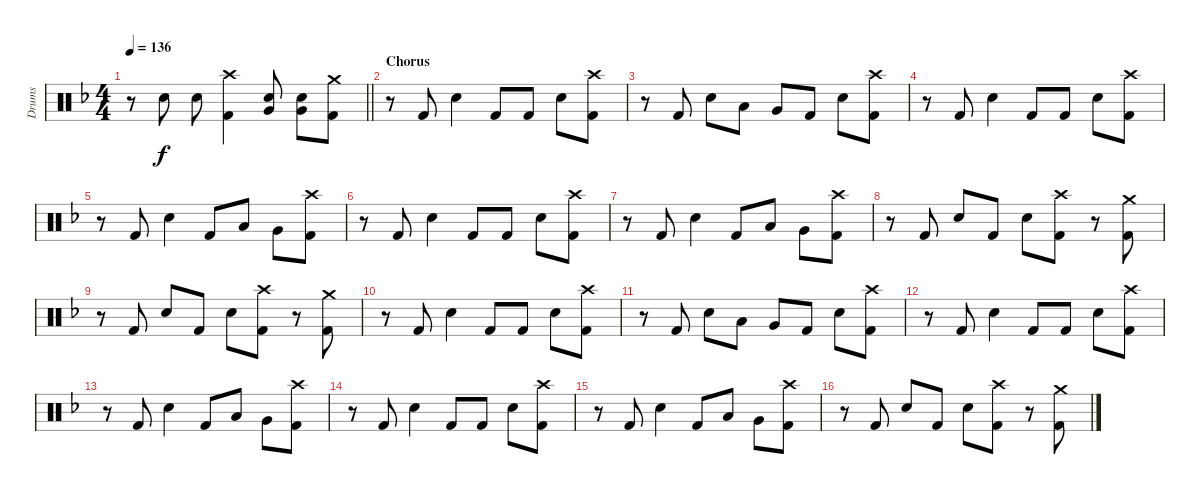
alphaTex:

\track ("Drums" "Drums") {instrument percussion}
\staff {score}
\articulation defaults
\ts (4 4)
\tempo 136
\clef neutral
\barLineRight lightlight
\ks dminor
r.8{dy f} "Snare (hit) 2".8 "Snare (hit) 2".8 ("Crash high (hit)" "Kick (hit) 2").4 ("Very Low Tom (hit)" "Snare (hit) 2").8 ("Very Low Tom (hit)" "Snare (hit) 2").8 ("Crash medium (hit)" "Kick (hit) 2").8 |
\section ("" "Chorus")
r.8 "Kick (hit) 2".8 "Snare (hit) 2".4 "Kick (hit) 2".8 "Kick (hit) 2".8 "Snare (hit) 2".8 ("Crash high (hit)" "Kick (hit) 2").8 |
r.8 "Kick (hit) 2".8 "Snare (hit) 2".8 "Low Tom (hit)".8 "Very Low Tom (hit)".8 "Kick (hit) 2".8 "Snare (hit) 2".8 ("Crash high (hit)" "Kick (hit) 2").8 |
r.8 "Kick (hit) 2".8 "Snare (hit) 2".4 "Kick (hit) 2".8 "Kick (hit) 2".8 "Snare (hit) 2".8 ("Crash high (hit)" "Kick (hit) 2").8 |
r.8 "Kick (hit) 2".8 "Snare (hit) 2".4 "Kick (hit) 2".8 "Low Tom (hit)".8 "Very Low Tom (hit)".8 ("Crash high (hit)" "Kick (hit) 2").8 |
r.8 "Kick (hit) 2".8 "Snare (hit) 2".4 "Kick (hit) 2".8 "Kick (hit) 2".8 "Snare (hit) 2".8 ("Crash high (hit)" "Kick (hit) 2").8 |
r.8 "Kick (hit) 2".8 "Snare (hit) 2".4 "Kick (hit) 2".8 "Low Tom (hit)".8 "Very Low Tom (hit)".8 ("Crash high (hit)" "Kick (hit) 2").8 |
r.8 "Kick (hit) 2".8 "Snare (hit) 2".8 "Kick (hit) 2".8 "Snare (hit) 2".8 ("Crash high (hit)" "Kick (hit) 2").8 r.8 ("Crash medium (hit)" "Kick (hit) 2").8 |
r.8 "Kick (hit) 2".8 "Snare (hit) 2".8 "Kick (hit) 2".8 "Snare (hit) 2".8 ("Crash high (hit)" "Kick (hit) 2").8 r.8 ("Crash medium (hit)" "Kick (hit) 2").8 |
r.8 "Kick (hit) 2".8 "Snare (hit) 2".4 "Kick (hit) 2".8 "Kick (hit) 2".8 "Snare (hit) 2".8 ("Crash high (hit)" "Kick (hit) 2").8 |
r.8 "Kick (hit) 2".8 "Snare (hit) 2".8 "Low Tom (hit)".8 "Very Low Tom (hit)".8 "Kick (hit) 2".8 "Snare (hit) 2".8 ("Crash high (hit)" "Kick (hit) 2").8 |
r.8 "Kick (hit) 2".8 "Snare (hit) 2".4 "Kick (hit) 2".8 "Kick (hit) 2".8 "Snare (hit) 2".8 ("Crash high (hit)" "Kick (hit) 2").8 |
r.8 "Kick (hit) 2".8 "Snare (hit) 2".4 "Kick (hit) 2".8 "Low Tom (hit)".8 "Very Low Tom (hit)".8 ("Crash high (hit)" "Kick (hit) 2").8 |
r.8 "Kick (hit) 2".8 "Snare (hit) 2".4 "Kick (hit) 2".8 "Kick (hit) 2".8 "Snare (hit) 2".8 ("Crash high (hit)" "Kick (hit) 2").8 |
r.8 "Kick (hit) 2".8 "Snare (hit) 2".4 "Kick (hit) 2".8 "Low Tom (hit)".8 "Very Low Tom (hit)".8 ("Crash high (hit)" "Kick (hit) 2").8 |
r.8 "Kick (hit) 2".8 "Snare (hit) 2".8 "Kick (hit) 2".8 "Snare (hit) 2".8 ("Crash high (hit)" "Kick (hit) 2").8 r.8 ("Crash medium (hit)" "Kick (hit) 2").8
